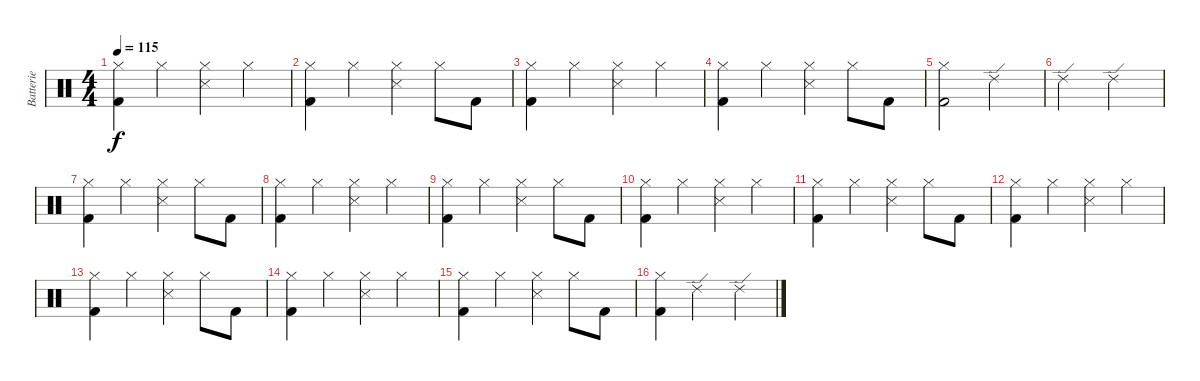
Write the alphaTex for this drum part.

\track ("Batterie" "Batterie") {instrument percussion}
\staff {score}
\articulation defaults
\ts (4 4)
\tempo 115
\clef neutral
\ks c
("Hi-Hat (closed)" "Kick (hit) 2").4{dy f} "Hi-Hat (closed)".4 ("Hi-Hat (closed)" "Snare (side stick) 3").4 "Hi-Hat (closed)".4 |
("Hi-Hat (closed)" "Kick (hit) 2").4 "Hi-Hat (closed)".4 ("Hi-Hat (closed)" "Snare (side stick) 3").4 "Hi-Hat (closed)".8 "Kick (hit) 2".8 |
("Hi-Hat (closed)" "Kick (hit) 2").4 "Hi-Hat (closed)".4 ("Hi-Hat (closed)" "Snare (side stick) 3").4 "Hi-Hat (closed)".4 |
("Hi-Hat (closed)" "Kick (hit) 2").4 "Hi-Hat (closed)".4 ("Hi-Hat (closed)" "Snare (side stick) 3").4 "Hi-Hat (closed)".8 "Kick (hit) 2".8 |
("Hi-Hat (closed)" "Kick (hit) 2").2 "Ride (edge) 2".2 |
"Ride (edge) 2".2 "Ride (edge) 2".2 |
("Hi-Hat (closed)" "Kick (hit) 2").4 "Hi-Hat (closed)".4 ("Hi-Hat (closed)" "Snare (side stick) 3").4 "Hi-Hat (closed)".8 "Kick (hit) 2".8 |
("Hi-Hat (closed)" "Kick (hit) 2").4 "Hi-Hat (closed)".4 ("Hi-Hat (closed)" "Snare (side stick) 3").4 "Hi-Hat (closed)".4 |
("Hi-Hat (closed)" "Kick (hit) 2").4 "Hi-Hat (closed)".4 ("Hi-Hat (closed)" "Snare (side stick) 3").4 "Hi-Hat (closed)".8 "Kick (hit) 2".8 |
("Hi-Hat (closed)" "Kick (hit) 2").4 "Hi-Hat (closed)".4 ("Hi-Hat (closed)" "Snare (side stick) 3").4 "Hi-Hat (closed)".4 |
("Hi-Hat (closed)" "Kick (hit) 2").4 "Hi-Hat (closed)".4 ("Hi-Hat (closed)" "Snare (side stick) 3").4 "Hi-Hat (closed)".8 "Kick (hit) 2".8 |
("Hi-Hat (closed)" "Kick (hit) 2").4 "Hi-Hat (closed)".4 ("Hi-Hat (closed)" "Snare (side stick) 3").4 "Hi-Hat (closed)".4 |
("Hi-Hat (closed)" "Kick (hit) 2").4 "Hi-Hat (closed)".4 ("Hi-Hat (closed)" "Snare (side stick) 3").4 "Hi-Hat (closed)".8 "Kick (hit) 2".8 |
("Hi-Hat (closed)" "Kick (hit) 2").4 "Hi-Hat (closed)".4 ("Hi-Hat (closed)" "Snare (side stick) 3").4 "Hi-Hat (closed)".4 |
("Hi-Hat (closed)" "Kick (hit) 2").4 "Hi-Hat (closed)".4 ("Hi-Hat (closed)" "Snare (side stick) 3").4 "Hi-Hat (closed)".8 "Kick (hit) 2".8 |
("Hi-Hat (closed)" "Kick (hit) 2").4 "Ride (edge) 2".2 "Ride (edge) 2".4
